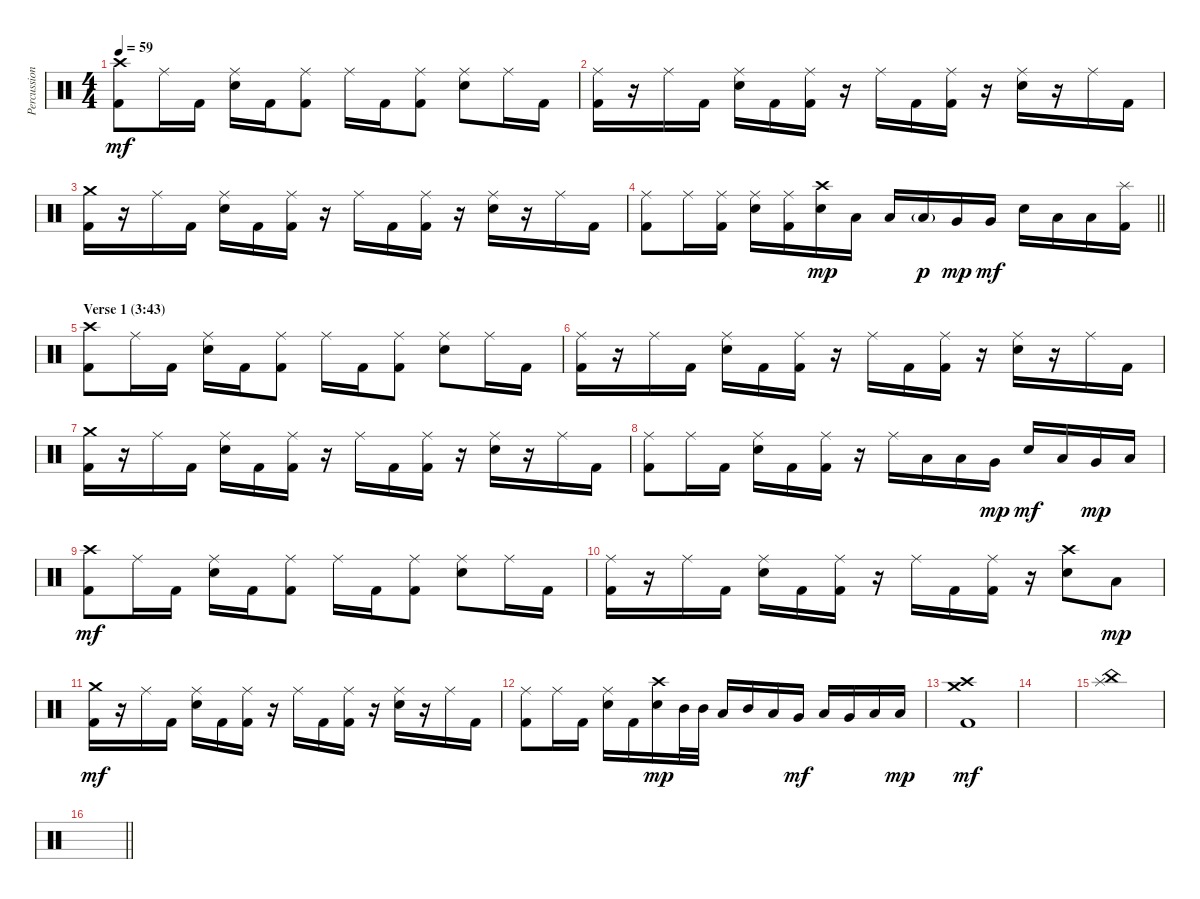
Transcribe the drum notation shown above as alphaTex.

\track ("Percussions" "Percussion") {instrument percussion}
\staff {score}
\articulation defaults
\ts (4 4)
\tempo 59
\clef neutral
\ks c
("Crash high (hit)" "Kick (hit) 2").8{dy mf} "Ride (middle)".16 "Kick (hit) 2".16 ("Ride (middle)" "Snare (hit) 2").16 "Kick (hit) 2".16 ("Ride (middle)" "Kick (hit) 2").8 "Ride (middle)".16 "Kick (hit) 2".16 ("Ride (middle)" "Kick (hit) 2").8 ("Ride (middle)" "Snare (hit) 2").8 "Ride (middle)".16 "Kick (hit) 2".16 |
("Ride (middle)" "Kick (hit) 2").16 r.16 "Ride (middle)".16 "Kick (hit) 2".16 ("Ride (middle)" "Snare (hit) 2").16 "Kick (hit) 2".16 ("Ride (middle)" "Kick (hit) 2").16 r.16 "Ride (middle)".16 "Kick (hit) 2".16 ("Ride (middle)" "Kick (hit) 2").16 r.16 ("Ride (middle)" "Snare (hit) 2").16 r.16 "Ride (middle)".16 "Kick (hit) 2".16 |
("Crash medium (hit)" "Kick (hit) 2").16 r.16 "Ride (middle)".16 "Kick (hit) 2".16 ("Ride (middle)" "Snare (hit) 2").16 "Kick (hit) 2".16 ("Ride (middle)" "Kick (hit) 2").16 r.16 "Ride (middle)".16 "Kick (hit) 2".16 ("Ride (middle)" "Kick (hit) 2").16 r.16 ("Ride (middle)" "Snare (hit) 2").16 r.16 "Ride (middle)".16 "Kick (hit) 2".16 |
\barLineRight lightlight
("Ride (middle)" "Kick (hit) 2").8 "Ride (middle)".16 ("Ride (middle)" "Kick (hit) 2").16 ("Ride (middle)" "Snare (hit) 2").16 ("Ride (middle)" "Kick (hit) 2").16 ("Crash high (hit)" "Snare (hit) 2").16{dy mp} "Low Tom (hit)".16 "Low Tom (hit)".16 "Low Tom (hit)"{g}.16{dy p} "Very Low Tom (hit)".16{dy mp} "Very Low Tom (hit)".16{dy mf} "Snare (hit) 2".16 "Low Floor Tom (hit)".16 "Low Floor Tom (hit)".16 ("Splash (hit)" "Kick (hit) 2").16 |
\section ("" "Verse 1 (3:43)")
("Crash high (hit)" "Kick (hit) 2").8 "Ride (middle)".16 "Kick (hit) 2".16 ("Ride (middle)" "Snare (hit) 2").16 "Kick (hit) 2".16 ("Ride (middle)" "Kick (hit) 2").8 "Ride (middle)".16 "Kick (hit) 2".16 ("Ride (middle)" "Kick (hit) 2").8 ("Ride (middle)" "Snare (hit) 2").8 "Ride (middle)".16 "Kick (hit) 2".16 |
("Ride (middle)" "Kick (hit) 2").16 r.16 "Ride (middle)".16 "Kick (hit) 2".16 ("Ride (middle)" "Snare (hit) 2").16 "Kick (hit) 2".16 ("Ride (middle)" "Kick (hit) 2").16 r.16 "Ride (middle)".16 "Kick (hit) 2".16 ("Ride (middle)" "Kick (hit) 2").16 r.16 ("Ride (middle)" "Snare (hit) 2").16 r.16 "Ride (middle)".16 "Kick (hit) 2".16 |
("Crash medium (hit)" "Kick (hit) 2").16 r.16 "Ride (middle)".16 "Kick (hit) 2".16 ("Ride (middle)" "Snare (hit) 2").16 "Kick (hit) 2".16 ("Ride (middle)" "Kick (hit) 2").16 r.16 "Ride (middle)".16 "Kick (hit) 2".16 ("Ride (middle)" "Kick (hit) 2").16 r.16 ("Ride (middle)" "Snare (hit) 2").16 r.16 "Ride (middle)".16 "Kick (hit) 2".16 |
("Ride (middle)" "Kick (hit) 2").8 "Ride (middle)".16 "Kick (hit) 2".16 ("Ride (middle)" "Snare (hit) 2").16 "Kick (hit) 2".16 ("Ride (middle)" "Kick (hit) 2").16 r.16 "Ride (middle)".16 "Low Tom (hit)".16 "Low Tom (hit)".16 "Very Low Tom (hit)".16{dy mp} "Snare (hit) 2".16{dy mf} "Low Tom (hit)".16 "Very Low Tom (hit)".16{dy mp} "Low Floor Tom (hit)".16 |
("Crash high (hit)" "Kick (hit) 2").8{dy mf} "Ride (middle)".16 "Kick (hit) 2".16 ("Ride (middle)" "Snare (hit) 2").16 "Kick (hit) 2".16 ("Ride (middle)" "Kick (hit) 2").8 "Ride (middle)".16 "Kick (hit) 2".16 ("Ride (middle)" "Kick (hit) 2").8 ("Ride (middle)" "Snare (hit) 2").8 "Ride (middle)".16 "Kick (hit) 2".16 |
("Ride (middle)" "Kick (hit) 2").16 r.16 "Ride (middle)".16 "Kick (hit) 2".16 ("Ride (middle)" "Snare (hit) 2").16 "Kick (hit) 2".16 ("Ride (middle)" "Kick (hit) 2").16 r.16 "Ride (middle)".16 "Kick (hit) 2".16 ("Ride (middle)" "Kick (hit) 2").16 r.16 ("Crash high (hit)" "Snare (hit) 2").8 "Low Floor Tom (hit)".8{dy mp} |
("Crash medium (hit)" "Kick (hit) 2").16{dy mf} r.16 "Ride (middle)".16 "Kick (hit) 2".16 ("Ride (middle)" "Snare (hit) 2").16 "Kick (hit) 2".16 ("Ride (middle)" "Kick (hit) 2").16 r.16 "Ride (middle)".16 "Kick (hit) 2".16 ("Ride (middle)" "Kick (hit) 2").16 r.16 ("Ride (middle)" "Snare (hit) 2").16 r.16 "Ride (middle)".16 "Kick (hit) 2".16 |
("Ride (middle)" "Kick (hit) 2").8 "Ride (middle)".16 "Kick (hit) 2".16 ("Ride (middle)" "Snare (hit) 2").16 "Kick (hit) 2".16 ("Crash high (hit)" "Snare (hit) 2").16{dy mp} "Mid Tom (hit)".32 "Mid Tom (hit)".32 "Low Tom (hit)".16 "Mid Tom (hit)".16 "Low Tom (hit)".16 "Very Low Tom (hit)".16{dy mf} "Low Tom (hit)".16 "Very Low Tom (hit)".16 "Low Tom (hit)".16 "Low Floor Tom (hit)".16{dy mp} |
("Crash high (hit)" "Crash medium (hit)" "Kick (hit) 2").1{dy mf} |
|
("China (hit)" "Splash (hit)").1 |
\barLineRight lightlight
